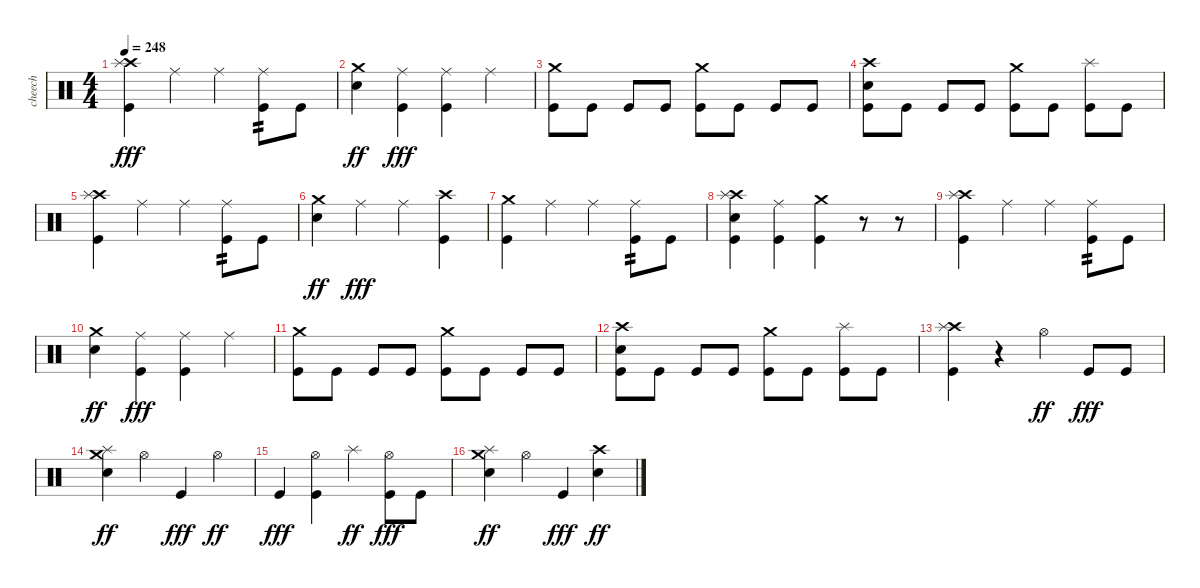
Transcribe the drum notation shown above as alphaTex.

\track ("cheech" "cheech") {instrument percussion}
\staff {score}
\articulation defaults
\ts (4 4)
\tempo 248
\clef neutral
\ks c
("Crash high (hit)" "Splash (hit)" "Kick (hit)").4{dy fff} "Ride (middle)".4 "Ride (middle)".4 ("Ride (middle)" "Kick (hit)").8{tp 2} "Kick (hit)".8 |
("Crash medium (hit)" "Electric Snare (hit)").4{dy ff} ("Ride (middle)" "Kick (hit)").4{dy fff} ("Ride (middle)" "Kick (hit)").4 "Ride (middle)".4 |
("Crash medium (hit)" "Kick (hit)").8 "Kick (hit)".8 "Kick (hit)".8 "Kick (hit)".8 ("Crash medium (hit)" "Kick (hit)").8 "Kick (hit)".8 "Kick (hit)".8 "Kick (hit)".8 |
("Crash high (hit)" "Electric Snare (hit)" "Kick (hit)").8 "Kick (hit)".8 "Kick (hit)".8 "Kick (hit)".8 ("Crash medium (hit)" "Kick (hit)").8 "Kick (hit)".8 ("Splash (hit)" "Kick (hit)").8 "Kick (hit)".8 |
("Crash high (hit)" "Splash (hit)" "Kick (hit)").4 "Ride (middle)".4 "Ride (middle)".4 ("Ride (middle)" "Kick (hit)").8{tp 2} "Kick (hit)".8 |
("Crash medium (hit)" "Electric Snare (hit)").4{dy ff} "Ride (middle)".4{dy fff} "Ride (middle)".4 ("Crash high (hit)" "Kick (hit)").4 |
("Crash medium (hit)" "Kick (hit)").4 "Ride (middle)".4 "Ride (middle)".4 ("Ride (middle)" "Kick (hit)").8{tp 2} "Kick (hit)".8 |
("Crash high (hit)" "Splash (hit)" "Electric Snare (hit)" "Kick (hit)").4 ("Ride (middle)" "Kick (hit)").4 ("Crash medium (hit)" "Kick (hit)").4 r.8 r.8 |
("Crash high (hit)" "Splash (hit)" "Kick (hit)").4 "Ride (middle)".4 "Ride (middle)".4 ("Ride (middle)" "Kick (hit)").8{tp 2} "Kick (hit)".8 |
("Crash medium (hit)" "Electric Snare (hit)").4{dy ff} ("Ride (middle)" "Kick (hit)").4{dy fff} ("Ride (middle)" "Kick (hit)").4 "Ride (middle)".4 |
("Crash medium (hit)" "Kick (hit)").8 "Kick (hit)".8 "Kick (hit)".8 "Kick (hit)".8 ("Crash medium (hit)" "Kick (hit)").8 "Kick (hit)".8 "Kick (hit)".8 "Kick (hit)".8 |
("Crash high (hit)" "Electric Snare (hit)" "Kick (hit)").8 "Kick (hit)".8 "Kick (hit)".8 "Kick (hit)".8 ("Crash medium (hit)" "Kick (hit)").8 "Kick (hit)".8 ("Splash (hit)" "Kick (hit)").8 "Kick (hit)".8 |
("Crash high (hit)" "Splash (hit)" "Kick (hit)").4 r.4 "Hi-Hat (open)".4{dy ff} "Kick (hit)".8{dy fff} "Kick (hit)".8 |
("Crash medium (hit)" "Splash (hit)" "Electric Snare (hit)").4{dy ff} "Hi-Hat (open)".4 "Kick (hit)".4{dy fff} "Hi-Hat (open)".4{dy ff} |
"Kick (hit)".4{dy fff} ("Hi-Hat (open)" "Kick (hit)").4 "Splash (hit)".4{dy ff} ("Hi-Hat (open)" "Kick (hit)").8{dy fff} "Kick (hit)".8 |
("Crash medium (hit)" "Splash (hit)" "Electric Snare (hit)").4{dy ff} "Hi-Hat (open)".4 "Kick (hit)".4{dy fff} ("Crash high (hit)" "Electric Snare (hit)").4{dy ff}
